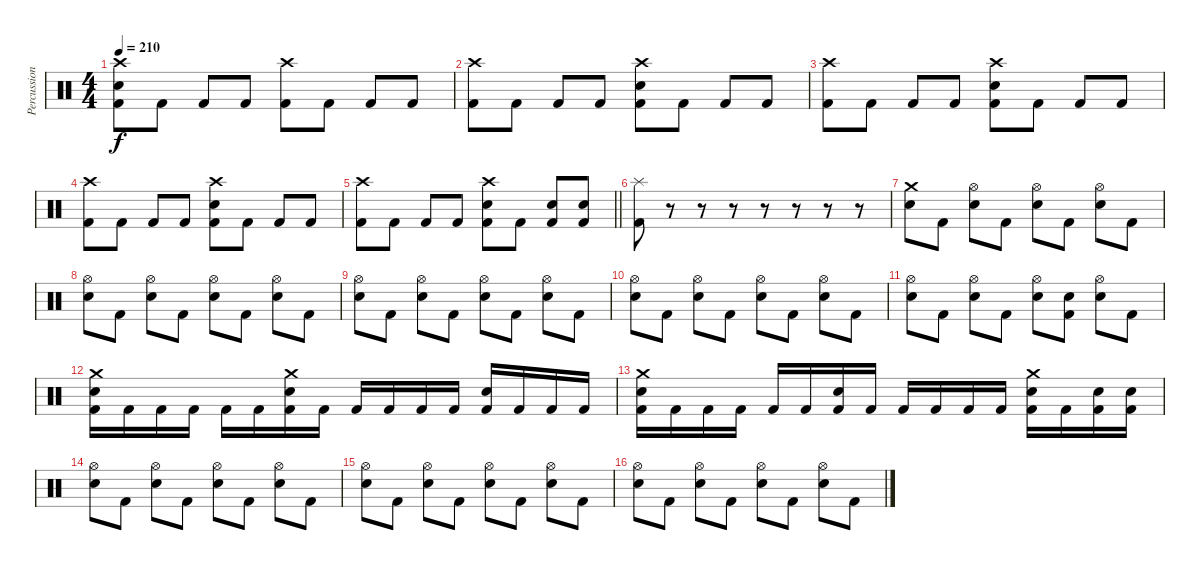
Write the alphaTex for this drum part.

\track ("Percussion" "Percussion") {instrument percussion}
\staff {score}
\articulation defaults
\ts (4 4)
\tempo 210
\clef neutral
\ks c
("Crash high (hit)" "Electric Snare (hit)" "Kick (hit) 2").8{dy f} "Kick (hit) 2".8 "Kick (hit) 2".8 "Kick (hit) 2".8 ("Crash high (hit)" "Kick (hit) 2").8 "Kick (hit) 2".8 "Kick (hit) 2".8 "Kick (hit) 2".8 |
("Crash high (hit)" "Kick (hit) 2").8 "Kick (hit) 2".8 "Kick (hit) 2".8 "Kick (hit) 2".8 ("Crash high (hit)" "Electric Snare (hit)" "Kick (hit) 2").8 "Kick (hit) 2".8 "Kick (hit) 2".8 "Kick (hit) 2".8 |
("Crash high (hit)" "Kick (hit) 2").8 "Kick (hit) 2".8 "Kick (hit) 2".8 "Kick (hit) 2".8 ("Crash high (hit)" "Electric Snare (hit)" "Kick (hit) 2").8 "Kick (hit) 2".8 "Kick (hit) 2".8 "Kick (hit) 2".8 |
("Crash high (hit)" "Kick (hit) 2").8 "Kick (hit) 2".8 "Kick (hit) 2".8 "Kick (hit) 2".8 ("Crash high (hit)" "Electric Snare (hit)" "Kick (hit) 2").8 "Kick (hit) 2".8 "Kick (hit) 2".8 "Kick (hit) 2".8 |
\barLineRight lightlight
("Crash high (hit)" "Kick (hit) 2").8 "Kick (hit) 2".8 "Kick (hit) 2".8 "Kick (hit) 2".8 ("Crash high (hit)" "Electric Snare (hit)" "Kick (hit) 2").8 "Kick (hit) 2".8 ("Electric Snare (hit)" "Kick (hit) 2").8 ("Electric Snare (hit)" "Kick (hit) 2").8 |
("Splash (hit)" "Kick (hit) 2").8 r.8 r.8 r.8 r.8 r.8 r.8 r.8 |
("Crash medium (hit)" "Electric Snare (hit)").8 "Kick (hit) 2".8 ("Hi-Hat (open)" "Electric Snare (hit)").8 "Kick (hit) 2".8 ("Hi-Hat (open)" "Electric Snare (hit)").8 "Kick (hit) 2".8 ("Hi-Hat (open)" "Electric Snare (hit)").8 "Kick (hit) 2".8 |
("Hi-Hat (open)" "Electric Snare (hit)").8 "Kick (hit) 2".8 ("Hi-Hat (open)" "Electric Snare (hit)").8 "Kick (hit) 2".8 ("Hi-Hat (open)" "Electric Snare (hit)").8 "Kick (hit) 2".8 ("Hi-Hat (open)" "Electric Snare (hit)").8 "Kick (hit) 2".8 |
("Hi-Hat (open)" "Electric Snare (hit)").8 "Kick (hit) 2".8 ("Hi-Hat (open)" "Electric Snare (hit)").8 "Kick (hit) 2".8 ("Hi-Hat (open)" "Electric Snare (hit)").8 "Kick (hit) 2".8 ("Hi-Hat (open)" "Electric Snare (hit)").8 "Kick (hit) 2".8 |
("Hi-Hat (open)" "Electric Snare (hit)").8 "Kick (hit) 2".8 ("Hi-Hat (open)" "Electric Snare (hit)").8 "Kick (hit) 2".8 ("Hi-Hat (open)" "Electric Snare (hit)").8 "Kick (hit) 2".8 ("Hi-Hat (open)" "Electric Snare (hit)").8 "Kick (hit) 2".8 |
("Hi-Hat (open)" "Electric Snare (hit)").8 "Kick (hit) 2".8 ("Hi-Hat (open)" "Electric Snare (hit)").8 "Kick (hit) 2".8 ("Hi-Hat (open)" "Electric Snare (hit)").8 ("Electric Snare (hit)" "Kick (hit) 2").8 ("Hi-Hat (open)" "Electric Snare (hit)").8 "Kick (hit) 2".8 |
("Crash medium (hit)" "Electric Snare (hit)" "Kick (hit) 2").16 "Kick (hit) 2".16 "Kick (hit) 2".16 "Kick (hit) 2".16 "Kick (hit) 2".16 "Kick (hit) 2".16 ("Crash medium (hit)" "Electric Snare (hit)" "Kick (hit) 2").16 "Kick (hit) 2".16 "Kick (hit) 2".16 "Kick (hit) 2".16 "Kick (hit) 2".16 "Kick (hit) 2".16 ("Electric Snare (hit)" "Kick (hit) 2").16 "Kick (hit) 2".16 "Kick (hit) 2".16 "Kick (hit) 2".16 |
("Crash medium (hit)" "Electric Snare (hit)" "Kick (hit) 2").16 "Kick (hit) 2".16 "Kick (hit) 2".16 "Kick (hit) 2".16 "Kick (hit) 2".16 "Kick (hit) 2".16 ("Electric Snare (hit)" "Kick (hit) 2").16 "Kick (hit) 2".16 "Kick (hit) 2".16 "Kick (hit) 2".16 "Kick (hit) 2".16 "Kick (hit) 2".16 ("Crash medium (hit)" "Electric Snare (hit)" "Kick (hit) 2").16 "Kick (hit) 2".16 ("Electric Snare (hit)" "Kick (hit) 2").16 ("Electric Snare (hit)" "Kick (hit) 2").16 |
("Hi-Hat (open)" "Electric Snare (hit)").8 "Kick (hit) 2".8 ("Hi-Hat (open)" "Electric Snare (hit)").8 "Kick (hit) 2".8 ("Hi-Hat (open)" "Electric Snare (hit)").8 "Kick (hit) 2".8 ("Hi-Hat (open)" "Electric Snare (hit)").8 "Kick (hit) 2".8 |
("Hi-Hat (open)" "Electric Snare (hit)").8 "Kick (hit) 2".8 ("Hi-Hat (open)" "Electric Snare (hit)").8 "Kick (hit) 2".8 ("Hi-Hat (open)" "Electric Snare (hit)").8 "Kick (hit) 2".8 ("Hi-Hat (open)" "Electric Snare (hit)").8 "Kick (hit) 2".8 |
("Hi-Hat (open)" "Electric Snare (hit)").8 "Kick (hit) 2".8 ("Hi-Hat (open)" "Electric Snare (hit)").8 "Kick (hit) 2".8 ("Hi-Hat (open)" "Electric Snare (hit)").8 "Kick (hit) 2".8 ("Hi-Hat (open)" "Electric Snare (hit)").8 "Kick (hit) 2".8
